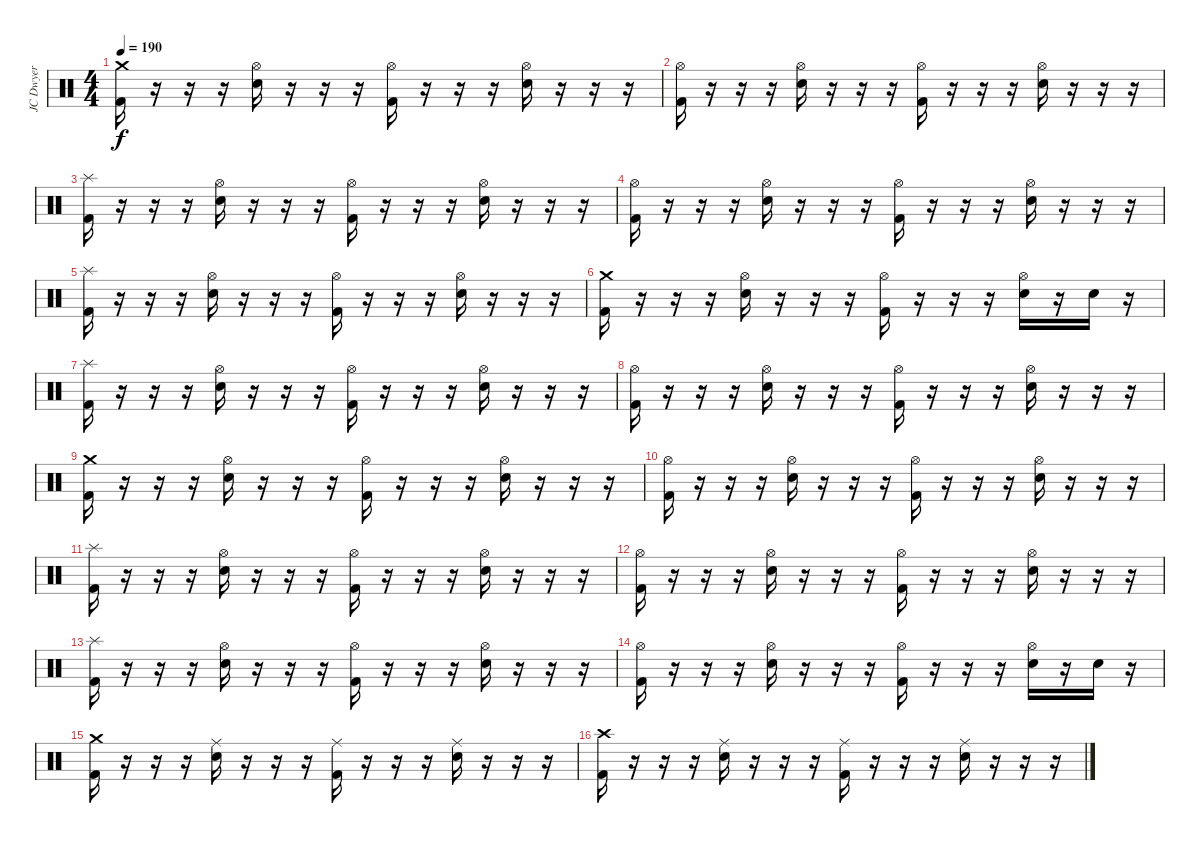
\track ("JC Dwyer" "JC Dwyer") {instrument percussion}
\staff {score}
\articulation defaults
\ts (4 4)
\tempo 190
\clef neutral
\ks c
("Crash medium (hit)" "Kick (hit) 2").16{dy f} r.16 r.16 r.16 ("Hi-Hat (open)" "Electric Snare (hit)").16 r.16 r.16 r.16 ("Hi-Hat (open)" "Kick (hit) 2").16 r.16 r.16 r.16 ("Hi-Hat (open)" "Electric Snare (hit)").16 r.16 r.16 r.16 |
("Hi-Hat (open)" "Kick (hit) 2").16 r.16 r.16 r.16 ("Hi-Hat (open)" "Electric Snare (hit)").16 r.16 r.16 r.16 ("Hi-Hat (open)" "Kick (hit) 2").16 r.16 r.16 r.16 ("Hi-Hat (open)" "Electric Snare (hit)").16 r.16 r.16 r.16 |
("Splash (hit)" "Kick (hit) 2").16 r.16 r.16 r.16 ("Hi-Hat (open)" "Electric Snare (hit)").16 r.16 r.16 r.16 ("Hi-Hat (open)" "Kick (hit) 2").16 r.16 r.16 r.16 ("Hi-Hat (open)" "Electric Snare (hit)").16 r.16 r.16 r.16 |
("Hi-Hat (open)" "Kick (hit) 2").16 r.16 r.16 r.16 ("Hi-Hat (open)" "Electric Snare (hit)").16 r.16 r.16 r.16 ("Hi-Hat (open)" "Kick (hit) 2").16 r.16 r.16 r.16 ("Hi-Hat (open)" "Electric Snare (hit)").16 r.16 r.16 r.16 |
("Splash (hit)" "Kick (hit) 2").16 r.16 r.16 r.16 ("Hi-Hat (open)" "Electric Snare (hit)").16 r.16 r.16 r.16 ("Hi-Hat (open)" "Kick (hit) 2").16 r.16 r.16 r.16 ("Hi-Hat (open)" "Electric Snare (hit)").16 r.16 r.16 r.16 |
("Crash medium (hit)" "Kick (hit) 2").16 r.16 r.16 r.16 ("Hi-Hat (open)" "Electric Snare (hit)").16 r.16 r.16 r.16 ("Hi-Hat (open)" "Kick (hit) 2").16 r.16 r.16 r.16 ("Hi-Hat (open)" "Electric Snare (hit)").16 r.16 "Electric Snare (hit)".16 r.16 |
("Splash (hit)" "Kick (hit) 2").16 r.16 r.16 r.16 ("Hi-Hat (open)" "Electric Snare (hit)").16 r.16 r.16 r.16 ("Hi-Hat (open)" "Kick (hit) 2").16 r.16 r.16 r.16 ("Hi-Hat (open)" "Electric Snare (hit)").16 r.16 r.16 r.16 |
("Hi-Hat (open)" "Kick (hit) 2").16 r.16 r.16 r.16 ("Hi-Hat (open)" "Electric Snare (hit)").16 r.16 r.16 r.16 ("Hi-Hat (open)" "Kick (hit) 2").16 r.16 r.16 r.16 ("Hi-Hat (open)" "Electric Snare (hit)").16 r.16 r.16 r.16 |
("Crash medium (hit)" "Kick (hit) 2").16 r.16 r.16 r.16 ("Hi-Hat (open)" "Electric Snare (hit)").16 r.16 r.16 r.16 ("Hi-Hat (open)" "Kick (hit) 2").16 r.16 r.16 r.16 ("Hi-Hat (open)" "Electric Snare (hit)").16 r.16 r.16 r.16 |
("Hi-Hat (open)" "Kick (hit) 2").16 r.16 r.16 r.16 ("Hi-Hat (open)" "Electric Snare (hit)").16 r.16 r.16 r.16 ("Hi-Hat (open)" "Kick (hit) 2").16 r.16 r.16 r.16 ("Hi-Hat (open)" "Electric Snare (hit)").16 r.16 r.16 r.16 |
("Splash (hit)" "Kick (hit) 2").16 r.16 r.16 r.16 ("Hi-Hat (open)" "Electric Snare (hit)").16 r.16 r.16 r.16 ("Hi-Hat (open)" "Kick (hit) 2").16 r.16 r.16 r.16 ("Hi-Hat (open)" "Electric Snare (hit)").16 r.16 r.16 r.16 |
("Hi-Hat (open)" "Kick (hit) 2").16 r.16 r.16 r.16 ("Hi-Hat (open)" "Electric Snare (hit)").16 r.16 r.16 r.16 ("Hi-Hat (open)" "Kick (hit) 2").16 r.16 r.16 r.16 ("Hi-Hat (open)" "Electric Snare (hit)").16 r.16 r.16 r.16 |
("Splash (hit)" "Kick (hit) 2").16 r.16 r.16 r.16 ("Hi-Hat (open)" "Electric Snare (hit)").16 r.16 r.16 r.16 ("Hi-Hat (open)" "Kick (hit) 2").16 r.16 r.16 r.16 ("Hi-Hat (open)" "Electric Snare (hit)").16 r.16 r.16 r.16 |
("Hi-Hat (open)" "Kick (hit) 2").16 r.16 r.16 r.16 ("Hi-Hat (open)" "Electric Snare (hit)").16 r.16 r.16 r.16 ("Hi-Hat (open)" "Kick (hit) 2").16 r.16 r.16 r.16 ("Hi-Hat (open)" "Electric Snare (hit)").16 r.16 "Electric Snare (hit)".16 r.16 |
("Crash medium (hit)" "Kick (hit) 2").16 r.16 r.16 r.16 ("Ride (middle)" "Electric Snare (hit)").16 r.16 r.16 r.16 ("Ride (middle)" "Kick (hit) 2").16 r.16 r.16 r.16 ("Ride (middle)" "Electric Snare (hit)").16 r.16 r.16 r.16 |
("Crash high (hit)" "Kick (hit) 2").16 r.16 r.16 r.16 ("Ride (middle)" "Electric Snare (hit)").16 r.16 r.16 r.16 ("Ride (middle)" "Kick (hit) 2").16 r.16 r.16 r.16 ("Ride (middle)" "Electric Snare (hit)").16 r.16 r.16 r.16
